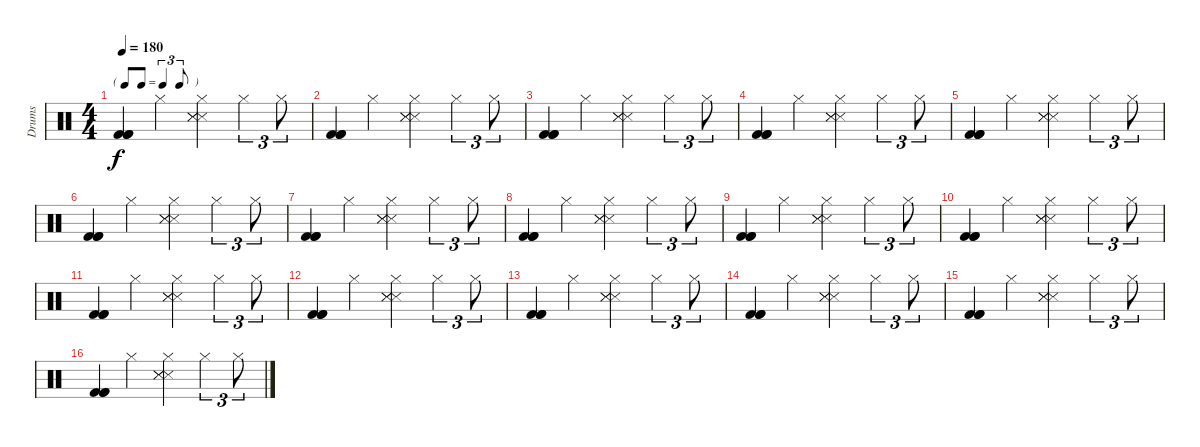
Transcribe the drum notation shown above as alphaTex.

\track ("Drums" "Drums") {instrument percussion}
\staff {score}
\articulation defaults
\ts (4 4)
\tf triplet8th
\tempo 180
\clef neutral
\ks c
("Kick (hit) 2" "Kick (hit) 2" "Kick (hit) 2").4{dy f} "Hi-Hat (closed)".4 ("Snare (side stick) 3" "Snare (side stick) 3" "Snare (side stick) 3" "Hi-Hat (closed)").4 "Hi-Hat (closed)".4{tu (3 2)} "Hi-Hat (closed)".8{tu (3 2)} |
("Kick (hit) 2" "Kick (hit) 2" "Kick (hit) 2").4 "Hi-Hat (closed)".4 ("Snare (side stick) 3" "Snare (side stick) 3" "Snare (side stick) 3" "Hi-Hat (closed)").4 "Hi-Hat (closed)".4{tu (3 2)} "Hi-Hat (closed)".8{tu (3 2)} |
("Kick (hit) 2" "Kick (hit) 2" "Kick (hit) 2").4 "Hi-Hat (closed)".4 ("Snare (side stick) 3" "Snare (side stick) 3" "Snare (side stick) 3" "Hi-Hat (closed)").4 "Hi-Hat (closed)".4{tu (3 2)} "Hi-Hat (closed)".8{tu (3 2)} |
("Kick (hit) 2" "Kick (hit) 2" "Kick (hit) 2").4 "Hi-Hat (closed)".4 ("Snare (side stick) 3" "Snare (side stick) 3" "Snare (side stick) 3" "Hi-Hat (closed)").4 "Hi-Hat (closed)".4{tu (3 2)} "Hi-Hat (closed)".8{tu (3 2)} |
("Kick (hit) 2" "Kick (hit) 2" "Kick (hit) 2").4 "Hi-Hat (closed)".4 ("Snare (side stick) 3" "Snare (side stick) 3" "Snare (side stick) 3" "Hi-Hat (closed)").4 "Hi-Hat (closed)".4{tu (3 2)} "Hi-Hat (closed)".8{tu (3 2)} |
("Kick (hit) 2" "Kick (hit) 2" "Kick (hit) 2").4 "Hi-Hat (closed)".4 ("Snare (side stick) 3" "Snare (side stick) 3" "Snare (side stick) 3" "Hi-Hat (closed)").4 "Hi-Hat (closed)".4{tu (3 2)} "Hi-Hat (closed)".8{tu (3 2)} |
("Kick (hit) 2" "Kick (hit) 2" "Kick (hit) 2").4 "Hi-Hat (closed)".4 ("Snare (side stick) 3" "Snare (side stick) 3" "Snare (side stick) 3" "Hi-Hat (closed)").4 "Hi-Hat (closed)".4{tu (3 2)} "Hi-Hat (closed)".8{tu (3 2)} |
("Kick (hit) 2" "Kick (hit) 2" "Kick (hit) 2").4 "Hi-Hat (closed)".4 ("Snare (side stick) 3" "Snare (side stick) 3" "Snare (side stick) 3" "Hi-Hat (closed)").4 "Hi-Hat (closed)".4{tu (3 2)} "Hi-Hat (closed)".8{tu (3 2)} |
("Kick (hit) 2" "Kick (hit) 2" "Kick (hit) 2").4 "Hi-Hat (closed)".4 ("Snare (side stick) 3" "Snare (side stick) 3" "Snare (side stick) 3" "Hi-Hat (closed)").4 "Hi-Hat (closed)".4{tu (3 2)} "Hi-Hat (closed)".8{tu (3 2)} |
("Kick (hit) 2" "Kick (hit) 2" "Kick (hit) 2").4 "Hi-Hat (closed)".4 ("Snare (side stick) 3" "Snare (side stick) 3" "Snare (side stick) 3" "Hi-Hat (closed)").4 "Hi-Hat (closed)".4{tu (3 2)} "Hi-Hat (closed)".8{tu (3 2)} |
("Kick (hit) 2" "Kick (hit) 2" "Kick (hit) 2").4 "Hi-Hat (closed)".4 ("Snare (side stick) 3" "Snare (side stick) 3" "Snare (side stick) 3" "Hi-Hat (closed)").4 "Hi-Hat (closed)".4{tu (3 2)} "Hi-Hat (closed)".8{tu (3 2)} |
("Kick (hit) 2" "Kick (hit) 2" "Kick (hit) 2").4 "Hi-Hat (closed)".4 ("Snare (side stick) 3" "Snare (side stick) 3" "Snare (side stick) 3" "Hi-Hat (closed)").4 "Hi-Hat (closed)".4{tu (3 2)} "Hi-Hat (closed)".8{tu (3 2)} |
("Kick (hit) 2" "Kick (hit) 2" "Kick (hit) 2").4 "Hi-Hat (closed)".4 ("Snare (side stick) 3" "Snare (side stick) 3" "Snare (side stick) 3" "Hi-Hat (closed)").4 "Hi-Hat (closed)".4{tu (3 2)} "Hi-Hat (closed)".8{tu (3 2)} |
("Kick (hit) 2" "Kick (hit) 2" "Kick (hit) 2").4 "Hi-Hat (closed)".4 ("Snare (side stick) 3" "Snare (side stick) 3" "Snare (side stick) 3" "Hi-Hat (closed)").4 "Hi-Hat (closed)".4{tu (3 2)} "Hi-Hat (closed)".8{tu (3 2)} |
("Kick (hit) 2" "Kick (hit) 2" "Kick (hit) 2").4 "Hi-Hat (closed)".4 ("Snare (side stick) 3" "Snare (side stick) 3" "Snare (side stick) 3" "Hi-Hat (closed)").4 "Hi-Hat (closed)".4{tu (3 2)} "Hi-Hat (closed)".8{tu (3 2)} |
("Kick (hit) 2" "Kick (hit) 2" "Kick (hit) 2").4 "Hi-Hat (closed)".4 ("Snare (side stick) 3" "Snare (side stick) 3" "Snare (side stick) 3" "Hi-Hat (closed)").4 "Hi-Hat (closed)".4{tu (3 2)} "Hi-Hat (closed)".8{tu (3 2)}
